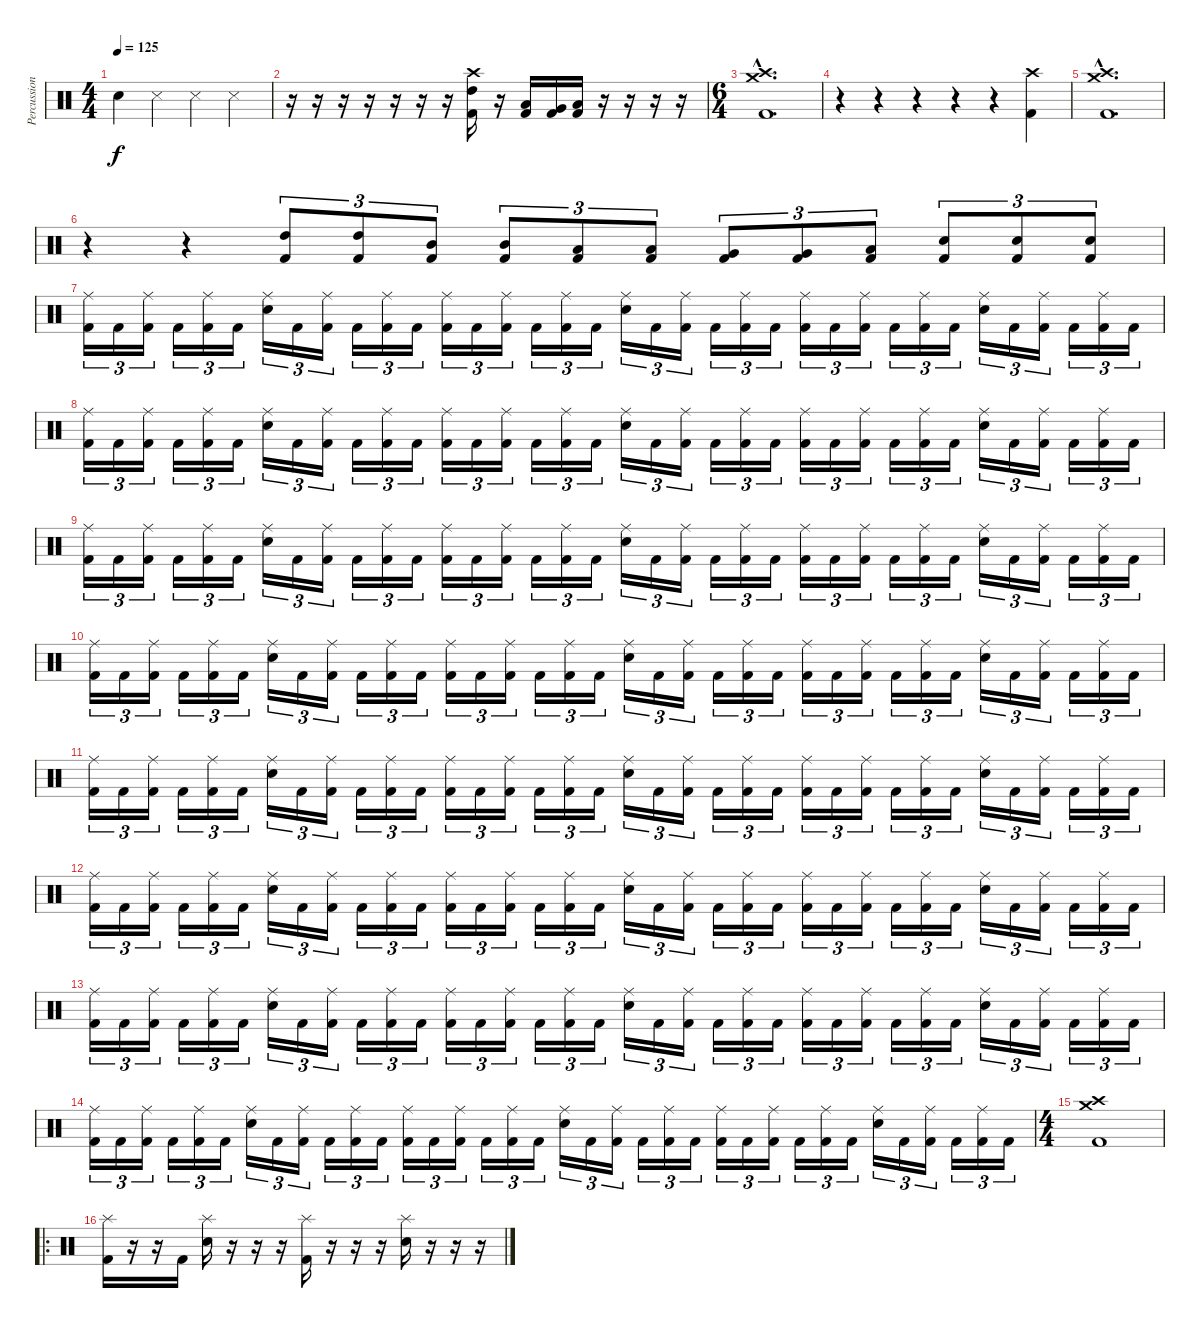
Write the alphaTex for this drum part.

\track ("Percussions" "Percussion") {instrument percussion}
\staff {score}
\articulation defaults
\ts (4 4)
\tempo 125
\clef neutral
\ks c "Metronome (bell)".4{dy f} "Metronome (hit)".4 "Metronome (hit)".4 "Metronome (hit)".4
|
r.16 r.16 r.16 r.16 r.16 r.16 r.16 ("Kick (hit) 2" "High Tom (hit)" "Crash high (hit)").16 r.16 ("Low Tom (hit)" "Kick (hit) 2").16 ("Very Low Tom (hit)" "Kick (hit) 2").16 ("Low Floor Tom (hit)" "Kick (hit) 2").16 r.16 r.16 r.16 r.16 |
\ts (6 4)
("Crash high (hit)"{hac} "Kick (hit) 2"{hac} "Crash medium (hit)"{hac}).1{d} |
r.4 r.4 r.4 r.4 r.4 ("Crash high (hit)" "Kick (hit) 2").4 |
("Crash high (hit)"{hac} "Kick (hit) 2"{hac} "Crash medium (hit)"{hac}).1{d} |
r.4 r.4 ("Kick (hit) 2" "High Tom (hit)").8{tu (3 2)} ("Kick (hit) 2" "High Tom (hit)").8{tu (3 2)} ("Kick (hit) 2" "Mid Tom (hit)").8{tu (3 2)} ("Kick (hit) 2" "Mid Tom (hit)").8{tu (3 2)} ("Kick (hit) 2" "Low Tom (hit)").8{tu (3 2)} ("Kick (hit) 2" "Low Tom (hit)").8{tu (3 2)} ("Kick (hit) 2" "Very Low Tom (hit)").8{tu (3 2)} ("Kick (hit) 2" "Very Low Tom (hit)").8{tu (3 2)} ("Kick (hit) 2" "Low Floor Tom (hit)").8{tu (3 2)} ("Kick (hit) 2" "Snare (hit) 2").8{tu (3 2)} ("Kick (hit) 2" "Snare (hit) 2").8{tu (3 2)} ("Kick (hit) 2" "Snare (hit) 2").8{tu (3 2)} |
("Kick (hit) 2" "Ride (middle)").16{tu (3 2)} "Kick (hit) 2".16{tu (3 2)} ("Kick (hit) 2" "Ride (middle)").16{tu (3 2)} "Kick (hit) 2".16{tu (3 2)} ("Kick (hit) 2" "Ride (middle)").16{tu (3 2)} "Kick (hit) 2".16{tu (3 2)} ("Snare (hit) 2" "Ride (middle)").16{tu (3 2)} "Kick (hit) 2".16{tu (3 2)} ("Kick (hit) 2" "Ride (middle)").16{tu (3 2)} "Kick (hit) 2".16{tu (3 2)} ("Kick (hit) 2" "Ride (middle)").16{tu (3 2)} "Kick (hit) 2".16{tu (3 2)} ("Kick (hit) 2" "Ride (middle)").16{tu (3 2)} "Kick (hit) 2".16{tu (3 2)} ("Kick (hit) 2" "Ride (middle)").16{tu (3 2)} "Kick (hit) 2".16{tu (3 2)} ("Kick (hit) 2" "Ride (middle)").16{tu (3 2)} "Kick (hit) 2".16{tu (3 2)} ("Snare (hit) 2" "Ride (middle)").16{tu (3 2)} "Kick (hit) 2".16{tu (3 2)} ("Kick (hit) 2" "Ride (middle)").16{tu (3 2)} "Kick (hit) 2".16{tu (3 2)} ("Kick (hit) 2" "Ride (middle)").16{tu (3 2)} "Kick (hit) 2".16{tu (3 2)} ("Kick (hit) 2" "Ride (middle)").16{tu (3 2)} "Kick (hit) 2".16{tu (3 2)} ("Kick (hit) 2" "Ride (middle)").16{tu (3 2)} "Kick (hit) 2".16{tu (3 2)} ("Kick (hit) 2" "Ride (middle)").16{tu (3 2)} "Kick (hit) 2".16{tu (3 2)} ("Snare (hit) 2" "Ride (middle)").16{tu (3 2)} "Kick (hit) 2".16{tu (3 2)} ("Kick (hit) 2" "Ride (middle)").16{tu (3 2)} "Kick (hit) 2".16{tu (3 2)} ("Kick (hit) 2" "Ride (middle)").16{tu (3 2)} "Kick (hit) 2".16{tu (3 2)} |
("Kick (hit) 2" "Ride (middle)").16{tu (3 2)} "Kick (hit) 2".16{tu (3 2)} ("Kick (hit) 2" "Ride (middle)").16{tu (3 2)} "Kick (hit) 2".16{tu (3 2)} ("Kick (hit) 2" "Ride (middle)").16{tu (3 2)} "Kick (hit) 2".16{tu (3 2)} ("Snare (hit) 2" "Ride (middle)").16{tu (3 2)} "Kick (hit) 2".16{tu (3 2)} ("Kick (hit) 2" "Ride (middle)").16{tu (3 2)} "Kick (hit) 2".16{tu (3 2)} ("Kick (hit) 2" "Ride (middle)").16{tu (3 2)} "Kick (hit) 2".16{tu (3 2)} ("Kick (hit) 2" "Ride (middle)").16{tu (3 2)} "Kick (hit) 2".16{tu (3 2)} ("Kick (hit) 2" "Ride (middle)").16{tu (3 2)} "Kick (hit) 2".16{tu (3 2)} ("Kick (hit) 2" "Ride (middle)").16{tu (3 2)} "Kick (hit) 2".16{tu (3 2)} ("Snare (hit) 2" "Ride (middle)").16{tu (3 2)} "Kick (hit) 2".16{tu (3 2)} ("Kick (hit) 2" "Ride (middle)").16{tu (3 2)} "Kick (hit) 2".16{tu (3 2)} ("Kick (hit) 2" "Ride (middle)").16{tu (3 2)} "Kick (hit) 2".16{tu (3 2)} ("Kick (hit) 2" "Ride (middle)").16{tu (3 2)} "Kick (hit) 2".16{tu (3 2)} ("Kick (hit) 2" "Ride (middle)").16{tu (3 2)} "Kick (hit) 2".16{tu (3 2)} ("Kick (hit) 2" "Ride (middle)").16{tu (3 2)} "Kick (hit) 2".16{tu (3 2)} ("Snare (hit) 2" "Ride (middle)").16{tu (3 2)} "Kick (hit) 2".16{tu (3 2)} ("Kick (hit) 2" "Ride (middle)").16{tu (3 2)} "Kick (hit) 2".16{tu (3 2)} ("Kick (hit) 2" "Ride (middle)").16{tu (3 2)} "Kick (hit) 2".16{tu (3 2)} |
("Kick (hit) 2" "Ride (middle)").16{tu (3 2)} "Kick (hit) 2".16{tu (3 2)} ("Kick (hit) 2" "Ride (middle)").16{tu (3 2)} "Kick (hit) 2".16{tu (3 2)} ("Kick (hit) 2" "Ride (middle)").16{tu (3 2)} "Kick (hit) 2".16{tu (3 2)} ("Snare (hit) 2" "Ride (middle)").16{tu (3 2)} "Kick (hit) 2".16{tu (3 2)} ("Kick (hit) 2" "Ride (middle)").16{tu (3 2)} "Kick (hit) 2".16{tu (3 2)} ("Kick (hit) 2" "Ride (middle)").16{tu (3 2)} "Kick (hit) 2".16{tu (3 2)} ("Kick (hit) 2" "Ride (middle)").16{tu (3 2)} "Kick (hit) 2".16{tu (3 2)} ("Kick (hit) 2" "Ride (middle)").16{tu (3 2)} "Kick (hit) 2".16{tu (3 2)} ("Kick (hit) 2" "Ride (middle)").16{tu (3 2)} "Kick (hit) 2".16{tu (3 2)} ("Snare (hit) 2" "Ride (middle)").16{tu (3 2)} "Kick (hit) 2".16{tu (3 2)} ("Kick (hit) 2" "Ride (middle)").16{tu (3 2)} "Kick (hit) 2".16{tu (3 2)} ("Kick (hit) 2" "Ride (middle)").16{tu (3 2)} "Kick (hit) 2".16{tu (3 2)} ("Kick (hit) 2" "Ride (middle)").16{tu (3 2)} "Kick (hit) 2".16{tu (3 2)} ("Kick (hit) 2" "Ride (middle)").16{tu (3 2)} "Kick (hit) 2".16{tu (3 2)} ("Kick (hit) 2" "Ride (middle)").16{tu (3 2)} "Kick (hit) 2".16{tu (3 2)} ("Snare (hit) 2" "Ride (middle)").16{tu (3 2)} "Kick (hit) 2".16{tu (3 2)} ("Kick (hit) 2" "Ride (middle)").16{tu (3 2)} "Kick (hit) 2".16{tu (3 2)} ("Kick (hit) 2" "Ride (middle)").16{tu (3 2)} "Kick (hit) 2".16{tu (3 2)} |
("Kick (hit) 2" "Ride (middle)").16{tu (3 2)} "Kick (hit) 2".16{tu (3 2)} ("Kick (hit) 2" "Ride (middle)").16{tu (3 2)} "Kick (hit) 2".16{tu (3 2)} ("Kick (hit) 2" "Ride (middle)").16{tu (3 2)} "Kick (hit) 2".16{tu (3 2)} ("Snare (hit) 2" "Ride (middle)").16{tu (3 2)} "Kick (hit) 2".16{tu (3 2)} ("Kick (hit) 2" "Ride (middle)").16{tu (3 2)} "Kick (hit) 2".16{tu (3 2)} ("Kick (hit) 2" "Ride (middle)").16{tu (3 2)} "Kick (hit) 2".16{tu (3 2)} ("Kick (hit) 2" "Ride (middle)").16{tu (3 2)} "Kick (hit) 2".16{tu (3 2)} ("Kick (hit) 2" "Ride (middle)").16{tu (3 2)} "Kick (hit) 2".16{tu (3 2)} ("Kick (hit) 2" "Ride (middle)").16{tu (3 2)} "Kick (hit) 2".16{tu (3 2)} ("Snare (hit) 2" "Ride (middle)").16{tu (3 2)} "Kick (hit) 2".16{tu (3 2)} ("Kick (hit) 2" "Ride (middle)").16{tu (3 2)} "Kick (hit) 2".16{tu (3 2)} ("Kick (hit) 2" "Ride (middle)").16{tu (3 2)} "Kick (hit) 2".16{tu (3 2)} ("Kick (hit) 2" "Ride (middle)").16{tu (3 2)} "Kick (hit) 2".16{tu (3 2)} ("Kick (hit) 2" "Ride (middle)").16{tu (3 2)} "Kick (hit) 2".16{tu (3 2)} ("Kick (hit) 2" "Ride (middle)").16{tu (3 2)} "Kick (hit) 2".16{tu (3 2)} ("Snare (hit) 2" "Ride (middle)").16{tu (3 2)} "Kick (hit) 2".16{tu (3 2)} ("Kick (hit) 2" "Ride (middle)").16{tu (3 2)} "Kick (hit) 2".16{tu (3 2)} ("Kick (hit) 2" "Ride (middle)").16{tu (3 2)} "Kick (hit) 2".16{tu (3 2)} |
("Kick (hit) 2" "Ride (middle)").16{tu (3 2)} "Kick (hit) 2".16{tu (3 2)} ("Kick (hit) 2" "Ride (middle)").16{tu (3 2)} "Kick (hit) 2".16{tu (3 2)} ("Kick (hit) 2" "Ride (middle)").16{tu (3 2)} "Kick (hit) 2".16{tu (3 2)} ("Snare (hit) 2" "Ride (middle)").16{tu (3 2)} "Kick (hit) 2".16{tu (3 2)} ("Kick (hit) 2" "Ride (middle)").16{tu (3 2)} "Kick (hit) 2".16{tu (3 2)} ("Kick (hit) 2" "Ride (middle)").16{tu (3 2)} "Kick (hit) 2".16{tu (3 2)} ("Kick (hit) 2" "Ride (middle)").16{tu (3 2)} "Kick (hit) 2".16{tu (3 2)} ("Kick (hit) 2" "Ride (middle)").16{tu (3 2)} "Kick (hit) 2".16{tu (3 2)} ("Kick (hit) 2" "Ride (middle)").16{tu (3 2)} "Kick (hit) 2".16{tu (3 2)} ("Snare (hit) 2" "Ride (middle)").16{tu (3 2)} "Kick (hit) 2".16{tu (3 2)} ("Kick (hit) 2" "Ride (middle)").16{tu (3 2)} "Kick (hit) 2".16{tu (3 2)} ("Kick (hit) 2" "Ride (middle)").16{tu (3 2)} "Kick (hit) 2".16{tu (3 2)} ("Kick (hit) 2" "Ride (middle)").16{tu (3 2)} "Kick (hit) 2".16{tu (3 2)} ("Kick (hit) 2" "Ride (middle)").16{tu (3 2)} "Kick (hit) 2".16{tu (3 2)} ("Kick (hit) 2" "Ride (middle)").16{tu (3 2)} "Kick (hit) 2".16{tu (3 2)} ("Snare (hit) 2" "Ride (middle)").16{tu (3 2)} "Kick (hit) 2".16{tu (3 2)} ("Kick (hit) 2" "Ride (middle)").16{tu (3 2)} "Kick (hit) 2".16{tu (3 2)} ("Kick (hit) 2" "Ride (middle)").16{tu (3 2)} "Kick (hit) 2".16{tu (3 2)} |
("Kick (hit) 2" "Ride (middle)").16{tu (3 2)} "Kick (hit) 2".16{tu (3 2)} ("Kick (hit) 2" "Ride (middle)").16{tu (3 2)} "Kick (hit) 2".16{tu (3 2)} ("Kick (hit) 2" "Ride (middle)").16{tu (3 2)} "Kick (hit) 2".16{tu (3 2)} ("Snare (hit) 2" "Ride (middle)").16{tu (3 2)} "Kick (hit) 2".16{tu (3 2)} ("Kick (hit) 2" "Ride (middle)").16{tu (3 2)} "Kick (hit) 2".16{tu (3 2)} ("Kick (hit) 2" "Ride (middle)").16{tu (3 2)} "Kick (hit) 2".16{tu (3 2)} ("Kick (hit) 2" "Ride (middle)").16{tu (3 2)} "Kick (hit) 2".16{tu (3 2)} ("Kick (hit) 2" "Ride (middle)").16{tu (3 2)} "Kick (hit) 2".16{tu (3 2)} ("Kick (hit) 2" "Ride (middle)").16{tu (3 2)} "Kick (hit) 2".16{tu (3 2)} ("Snare (hit) 2" "Ride (middle)").16{tu (3 2)} "Kick (hit) 2".16{tu (3 2)} ("Kick (hit) 2" "Ride (middle)").16{tu (3 2)} "Kick (hit) 2".16{tu (3 2)} ("Kick (hit) 2" "Ride (middle)").16{tu (3 2)} "Kick (hit) 2".16{tu (3 2)} ("Kick (hit) 2" "Ride (middle)").16{tu (3 2)} "Kick (hit) 2".16{tu (3 2)} ("Kick (hit) 2" "Ride (middle)").16{tu (3 2)} "Kick (hit) 2".16{tu (3 2)} ("Kick (hit) 2" "Ride (middle)").16{tu (3 2)} "Kick (hit) 2".16{tu (3 2)} ("Snare (hit) 2" "Ride (middle)").16{tu (3 2)} "Kick (hit) 2".16{tu (3 2)} ("Kick (hit) 2" "Ride (middle)").16{tu (3 2)} "Kick (hit) 2".16{tu (3 2)} ("Kick (hit) 2" "Ride (middle)").16{tu (3 2)} "Kick (hit) 2".16{tu (3 2)} |
("Kick (hit) 2" "Ride (middle)").16{tu (3 2)} "Kick (hit) 2".16{tu (3 2)} ("Kick (hit) 2" "Ride (middle)").16{tu (3 2)} "Kick (hit) 2".16{tu (3 2)} ("Kick (hit) 2" "Ride (middle)").16{tu (3 2)} "Kick (hit) 2".16{tu (3 2)} ("Snare (hit) 2" "Ride (middle)").16{tu (3 2)} "Kick (hit) 2".16{tu (3 2)} ("Kick (hit) 2" "Ride (middle)").16{tu (3 2)} "Kick (hit) 2".16{tu (3 2)} ("Kick (hit) 2" "Ride (middle)").16{tu (3 2)} "Kick (hit) 2".16{tu (3 2)} ("Kick (hit) 2" "Ride (middle)").16{tu (3 2)} "Kick (hit) 2".16{tu (3 2)} ("Kick (hit) 2" "Ride (middle)").16{tu (3 2)} "Kick (hit) 2".16{tu (3 2)} ("Kick (hit) 2" "Ride (middle)").16{tu (3 2)} "Kick (hit) 2".16{tu (3 2)} ("Snare (hit) 2" "Ride (middle)").16{tu (3 2)} "Kick (hit) 2".16{tu (3 2)} ("Kick (hit) 2" "Ride (middle)").16{tu (3 2)} "Kick (hit) 2".16{tu (3 2)} ("Kick (hit) 2" "Ride (middle)").16{tu (3 2)} "Kick (hit) 2".16{tu (3 2)} ("Kick (hit) 2" "Ride (middle)").16{tu (3 2)} "Kick (hit) 2".16{tu (3 2)} ("Kick (hit) 2" "Ride (middle)").16{tu (3 2)} "Kick (hit) 2".16{tu (3 2)} ("Kick (hit) 2" "Ride (middle)").16{tu (3 2)} "Kick (hit) 2".16{tu (3 2)} ("Snare (hit) 2" "Ride (middle)").16{tu (3 2)} "Kick (hit) 2".16{tu (3 2)} ("Kick (hit) 2" "Ride (middle)").16{tu (3 2)} "Kick (hit) 2".16{tu (3 2)} ("Kick (hit) 2" "Ride (middle)").16{tu (3 2)} "Kick (hit) 2".16{tu (3 2)} |
("Kick (hit) 2" "Ride (middle)").16{tu (3 2)} "Kick (hit) 2".16{tu (3 2)} ("Kick (hit) 2" "Ride (middle)").16{tu (3 2)} "Kick (hit) 2".16{tu (3 2)} ("Kick (hit) 2" "Ride (middle)").16{tu (3 2)} "Kick (hit) 2".16{tu (3 2)} ("Snare (hit) 2" "Ride (middle)").16{tu (3 2)} "Kick (hit) 2".16{tu (3 2)} ("Kick (hit) 2" "Ride (middle)").16{tu (3 2)} "Kick (hit) 2".16{tu (3 2)} ("Kick (hit) 2" "Ride (middle)").16{tu (3 2)} "Kick (hit) 2".16{tu (3 2)} ("Kick (hit) 2" "Ride (middle)").16{tu (3 2)} "Kick (hit) 2".16{tu (3 2)} ("Kick (hit) 2" "Ride (middle)").16{tu (3 2)} "Kick (hit) 2".16{tu (3 2)} ("Kick (hit) 2" "Ride (middle)").16{tu (3 2)} "Kick (hit) 2".16{tu (3 2)} ("Snare (hit) 2" "Ride (middle)").16{tu (3 2)} "Kick (hit) 2".16{tu (3 2)} ("Kick (hit) 2" "Ride (middle)").16{tu (3 2)} "Kick (hit) 2".16{tu (3 2)} ("Kick (hit) 2" "Ride (middle)").16{tu (3 2)} "Kick (hit) 2".16{tu (3 2)} ("Kick (hit) 2" "Ride (middle)").16{tu (3 2)} "Kick (hit) 2".16{tu (3 2)} ("Kick (hit) 2" "Ride (middle)").16{tu (3 2)} "Kick (hit) 2".16{tu (3 2)} ("Kick (hit) 2" "Ride (middle)").16{tu (3 2)} "Kick (hit) 2".16{tu (3 2)} ("Snare (hit) 2" "Ride (middle)").16{tu (3 2)} "Kick (hit) 2".16{tu (3 2)} ("Kick (hit) 2" "Ride (middle)").16{tu (3 2)} "Kick (hit) 2".16{tu (3 2)} ("Kick (hit) 2" "Ride (middle)").16{tu (3 2)} "Kick (hit) 2".16{tu (3 2)} |
\ts (4 4)
("Crash medium (hit)" "Crash high (hit)" "Kick (hit) 2").1 |
\ro
("Splash (hit)" "Kick (hit) 2").16 r.16 r.16 "Kick (hit) 2".16 ("Splash (hit)" "Snare (hit) 2").16 r.16 r.16 r.16 ("Splash (hit)" "Kick (hit) 2").16 r.16 r.16 r.16 ("Splash (hit)" "Snare (hit) 2").16 r.16 r.16 r.16
